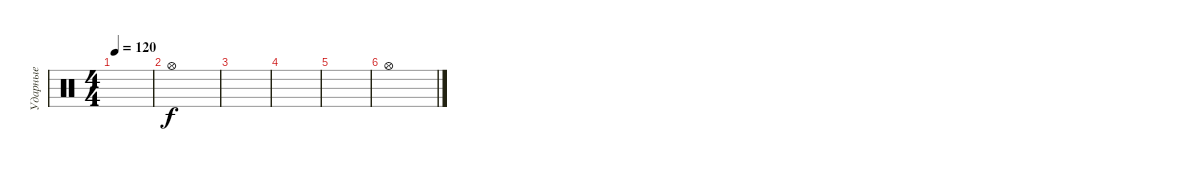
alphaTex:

\track ("Ударные" "Ударные") {instrument percussion}
\staff {score}
\articulation defaults
\ts (4 4)
\tempo 120
\clef neutral
\ks c
|
"Hi-Hat (open)".1 |
|
|
|
"Hi-Hat (open)".1
